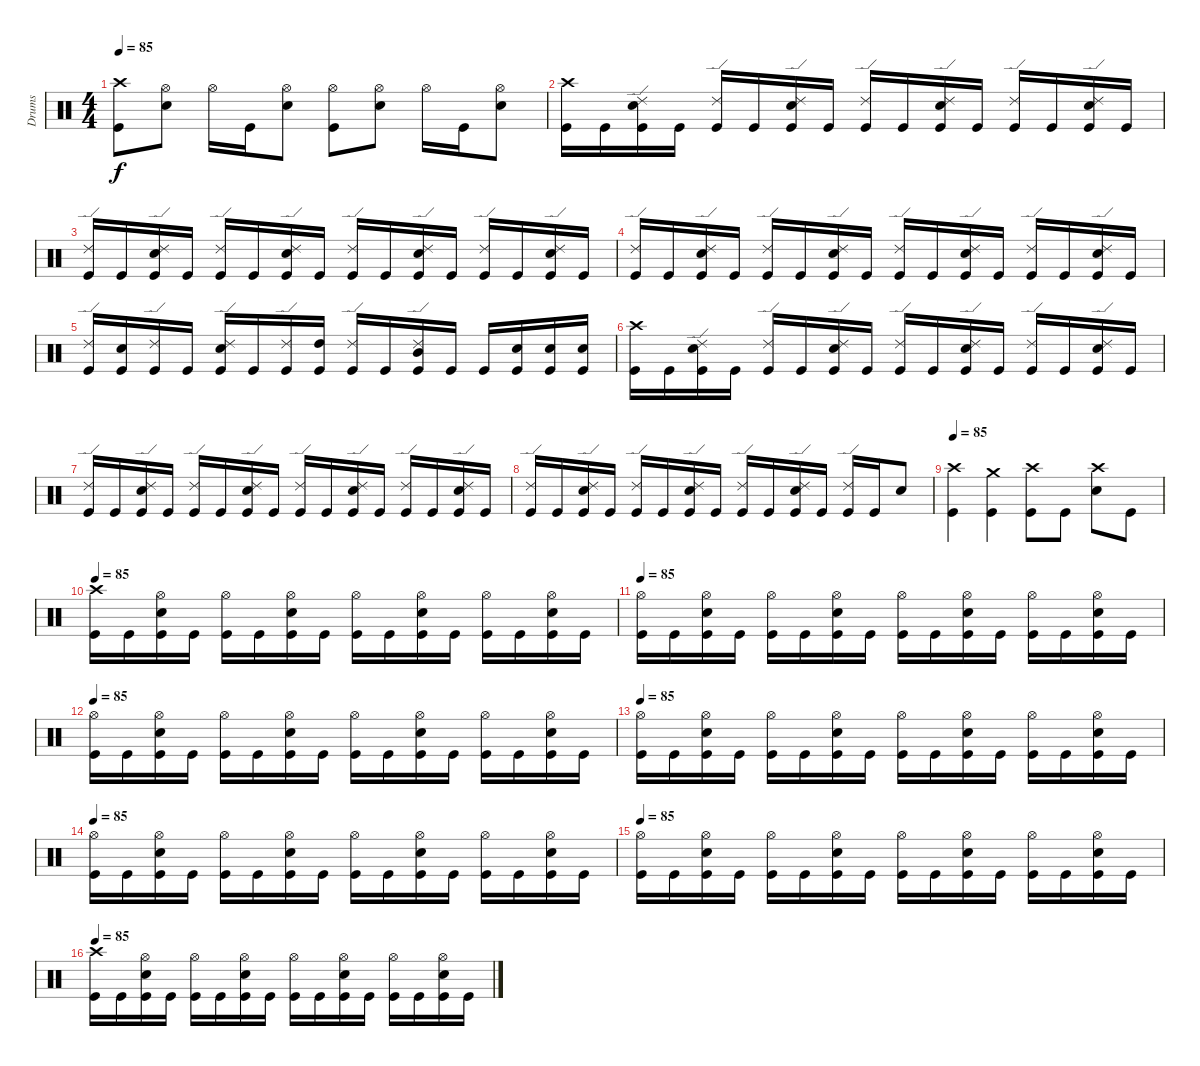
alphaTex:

\track ("Drums" "Drums") {instrument percussion}
\staff {score}
\articulation defaults
\ts (4 4)
\tempo 85
\clef neutral
\ks c
("Crash high (hit)" "Kick (hit)").8{dy f} ("Hi-Hat (open)" "Snare (hit) 2").8 "Hi-Hat (open)".16 "Kick (hit)".16 ("Hi-Hat (open)" "Snare (hit) 2").8 ("Hi-Hat (open)" "Kick (hit)").8 ("Hi-Hat (open)" "Snare (hit) 2").8 "Hi-Hat (open)".16 "Kick (hit)".16 ("Hi-Hat (open)" "Snare (hit) 2").8 |
("Crash high (hit)" "Kick (hit)").16 "Kick (hit)".16 ("Ride (edge) 2" "Snare (hit) 2" "Kick (hit)").16 "Kick (hit)".16 ("Ride (edge) 2" "Kick (hit)").16 "Kick (hit)".16 ("Ride (edge) 2" "Snare (hit) 2" "Kick (hit)").16 "Kick (hit)".16 ("Ride (edge) 2" "Kick (hit)").16 "Kick (hit)".16 ("Ride (edge) 2" "Snare (hit) 2" "Kick (hit)").16 "Kick (hit)".16 ("Ride (edge) 2" "Kick (hit)").16 "Kick (hit)".16 ("Ride (edge) 2" "Snare (hit) 2" "Kick (hit)").16 "Kick (hit)".16 |
("Ride (edge) 2" "Kick (hit)").16 "Kick (hit)".16 ("Ride (edge) 2" "Snare (hit) 2" "Kick (hit)").16 "Kick (hit)".16 ("Ride (edge) 2" "Kick (hit)").16 "Kick (hit)".16 ("Ride (edge) 2" "Snare (hit) 2" "Kick (hit)").16 "Kick (hit)".16 ("Ride (edge) 2" "Kick (hit)").16 "Kick (hit)".16 ("Ride (edge) 2" "Snare (hit) 2" "Kick (hit)").16 "Kick (hit)".16 ("Ride (edge) 2" "Kick (hit)").16 "Kick (hit)".16 ("Ride (edge) 2" "Snare (hit) 2" "Kick (hit)").16 "Kick (hit)".16 |
("Ride (edge) 2" "Kick (hit)").16 "Kick (hit)".16 ("Ride (edge) 2" "Snare (hit) 2" "Kick (hit)").16 "Kick (hit)".16 ("Ride (edge) 2" "Kick (hit)").16 "Kick (hit)".16 ("Ride (edge) 2" "Snare (hit) 2" "Kick (hit)").16 "Kick (hit)".16 ("Ride (edge) 2" "Kick (hit)").16 "Kick (hit)".16 ("Ride (edge) 2" "Snare (hit) 2" "Kick (hit)").16 "Kick (hit)".16 ("Ride (edge) 2" "Kick (hit)").16 "Kick (hit)".16 ("Ride (edge) 2" "Snare (hit) 2" "Kick (hit)").16 "Kick (hit)".16 |
("Ride (edge) 2" "Kick (hit)").16 ("Snare (hit) 2" "Kick (hit)").16 ("Ride (edge) 2" "Kick (hit)").16 "Kick (hit)".16 ("Ride (edge) 2" "Snare (hit) 2" "Kick (hit)").16 "Kick (hit)".16 ("Ride (edge) 2" "Kick (hit)").16 ("High Tom (hit)" "Kick (hit)").16 ("Ride (edge) 2" "Kick (hit)").16 "Kick (hit)".16 ("Mid Tom (hit)" "Ride (edge) 2" "Kick (hit)").16 "Kick (hit)".16 "Kick (hit)".16 ("Snare (hit) 2" "Kick (hit)").16 ("Snare (hit) 2" "Kick (hit)").16 ("Snare (hit) 2" "Kick (hit)").16 |
("Crash high (hit)" "Kick (hit)").16 "Kick (hit)".16 ("Ride (edge) 2" "Snare (hit) 2" "Kick (hit)").16 "Kick (hit)".16 ("Ride (edge) 2" "Kick (hit)").16 "Kick (hit)".16 ("Ride (edge) 2" "Snare (hit) 2" "Kick (hit)").16 "Kick (hit)".16 ("Ride (edge) 2" "Kick (hit)").16 "Kick (hit)".16 ("Ride (edge) 2" "Snare (hit) 2" "Kick (hit)").16 "Kick (hit)".16 ("Ride (edge) 2" "Kick (hit)").16 "Kick (hit)".16 ("Ride (edge) 2" "Snare (hit) 2" "Kick (hit)").16 "Kick (hit)".16 |
("Ride (edge) 2" "Kick (hit)").16 "Kick (hit)".16 ("Ride (edge) 2" "Snare (hit) 2" "Kick (hit)").16 "Kick (hit)".16 ("Ride (edge) 2" "Kick (hit)").16 "Kick (hit)".16 ("Ride (edge) 2" "Snare (hit) 2" "Kick (hit)").16 "Kick (hit)".16 ("Ride (edge) 2" "Kick (hit)").16 "Kick (hit)".16 ("Ride (edge) 2" "Snare (hit) 2" "Kick (hit)").16 "Kick (hit)".16 ("Ride (edge) 2" "Kick (hit)").16 "Kick (hit)".16 ("Ride (edge) 2" "Snare (hit) 2" "Kick (hit)").16 "Kick (hit)".16 |
("Ride (edge) 2" "Kick (hit)").16 "Kick (hit)".16 ("Ride (edge) 2" "Snare (hit) 2" "Kick (hit)").16 "Kick (hit)".16 ("Ride (edge) 2" "Kick (hit)").16 "Kick (hit)".16 ("Ride (edge) 2" "Snare (hit) 2" "Kick (hit)").16 "Kick (hit)".16 ("Ride (edge) 2" "Kick (hit)").16 "Kick (hit)".16 ("Ride (edge) 2" "Snare (hit) 2" "Kick (hit)").16 "Kick (hit)".16 ("Ride (edge) 2" "Kick (hit)").16 "Kick (hit)".16 "Snare (hit) 2".8 |
\tempo 85
("Crash high (hit)" "Kick (hit)").4 ("Crash medium (hit)" "Kick (hit)").4 ("Crash high (hit)" "Kick (hit)").8 "Kick (hit)".8 ("Crash high (hit)" "Snare (hit) 2").8 "Kick (hit)".8 |
\tempo 85
("Crash high (hit)" "Kick (hit)").16 "Kick (hit)".16 ("Hi-Hat (open)" "Snare (hit) 2" "Kick (hit)").16 "Kick (hit)".16 ("Hi-Hat (open)" "Kick (hit)").16 "Kick (hit)".16 ("Hi-Hat (open)" "Snare (hit) 2" "Kick (hit)").16 "Kick (hit)".16 ("Hi-Hat (open)" "Kick (hit)").16 "Kick (hit)".16 ("Hi-Hat (open)" "Snare (hit) 2" "Kick (hit)").16 "Kick (hit)".16 ("Hi-Hat (open)" "Kick (hit)").16 "Kick (hit)".16 ("Hi-Hat (open)" "Snare (hit) 2" "Kick (hit)").16 "Kick (hit)".16 |
\tempo 85
("Hi-Hat (open)" "Kick (hit)").16 "Kick (hit)".16 ("Hi-Hat (open)" "Snare (hit) 2" "Kick (hit)").16 "Kick (hit)".16 ("Hi-Hat (open)" "Kick (hit)").16 "Kick (hit)".16 ("Hi-Hat (open)" "Snare (hit) 2" "Kick (hit)").16 "Kick (hit)".16 ("Hi-Hat (open)" "Kick (hit)").16 "Kick (hit)".16 ("Hi-Hat (open)" "Snare (hit) 2" "Kick (hit)").16 "Kick (hit)".16 ("Hi-Hat (open)" "Kick (hit)").16 "Kick (hit)".16 ("Hi-Hat (open)" "Snare (hit) 2" "Kick (hit)").16 "Kick (hit)".16 |
\tempo 85
("Hi-Hat (open)" "Kick (hit)").16 "Kick (hit)".16 ("Hi-Hat (open)" "Snare (hit) 2" "Kick (hit)").16 "Kick (hit)".16 ("Hi-Hat (open)" "Kick (hit)").16 "Kick (hit)".16 ("Hi-Hat (open)" "Snare (hit) 2" "Kick (hit)").16 "Kick (hit)".16 ("Hi-Hat (open)" "Kick (hit)").16 "Kick (hit)".16 ("Hi-Hat (open)" "Snare (hit) 2" "Kick (hit)").16 "Kick (hit)".16 ("Hi-Hat (open)" "Kick (hit)").16 "Kick (hit)".16 ("Hi-Hat (open)" "Snare (hit) 2" "Kick (hit)").16 "Kick (hit)".16 |
\tempo 85
("Hi-Hat (open)" "Kick (hit)").16 "Kick (hit)".16 ("Hi-Hat (open)" "Snare (hit) 2" "Kick (hit)").16 "Kick (hit)".16 ("Hi-Hat (open)" "Kick (hit)").16 "Kick (hit)".16 ("Hi-Hat (open)" "Snare (hit) 2" "Kick (hit)").16 "Kick (hit)".16 ("Hi-Hat (open)" "Kick (hit)").16 "Kick (hit)".16 ("Hi-Hat (open)" "Snare (hit) 2" "Kick (hit)").16 "Kick (hit)".16 ("Hi-Hat (open)" "Kick (hit)").16 "Kick (hit)".16 ("Hi-Hat (open)" "Snare (hit) 2" "Kick (hit)").16 "Kick (hit)".16 |
\tempo 85
("Hi-Hat (open)" "Kick (hit)").16 "Kick (hit)".16 ("Hi-Hat (open)" "Snare (hit) 2" "Kick (hit)").16 "Kick (hit)".16 ("Hi-Hat (open)" "Kick (hit)").16 "Kick (hit)".16 ("Hi-Hat (open)" "Snare (hit) 2" "Kick (hit)").16 "Kick (hit)".16 ("Hi-Hat (open)" "Kick (hit)").16 "Kick (hit)".16 ("Hi-Hat (open)" "Snare (hit) 2" "Kick (hit)").16 "Kick (hit)".16 ("Hi-Hat (open)" "Kick (hit)").16 "Kick (hit)".16 ("Hi-Hat (open)" "Snare (hit) 2" "Kick (hit)").16 "Kick (hit)".16 |
\tempo 85
("Hi-Hat (open)" "Kick (hit)").16 "Kick (hit)".16 ("Hi-Hat (open)" "Snare (hit) 2" "Kick (hit)").16 "Kick (hit)".16 ("Hi-Hat (open)" "Kick (hit)").16 "Kick (hit)".16 ("Hi-Hat (open)" "Snare (hit) 2" "Kick (hit)").16 "Kick (hit)".16 ("Hi-Hat (open)" "Kick (hit)").16 "Kick (hit)".16 ("Hi-Hat (open)" "Snare (hit) 2" "Kick (hit)").16 "Kick (hit)".16 ("Hi-Hat (open)" "Kick (hit)").16 "Kick (hit)".16 ("Hi-Hat (open)" "Snare (hit) 2" "Kick (hit)").16 "Kick (hit)".16 |
\tempo 85
("Crash high (hit)" "Kick (hit)").16 "Kick (hit)".16 ("Hi-Hat (open)" "Snare (hit) 2" "Kick (hit)").16 "Kick (hit)".16 ("Hi-Hat (open)" "Kick (hit)").16 "Kick (hit)".16 ("Hi-Hat (open)" "Snare (hit) 2" "Kick (hit)").16 "Kick (hit)".16 ("Hi-Hat (open)" "Kick (hit)").16 "Kick (hit)".16 ("Hi-Hat (open)" "Snare (hit) 2" "Kick (hit)").16 "Kick (hit)".16 ("Hi-Hat (open)" "Kick (hit)").16 "Kick (hit)".16 ("Hi-Hat (open)" "Snare (hit) 2" "Kick (hit)").16 "Kick (hit)".16
